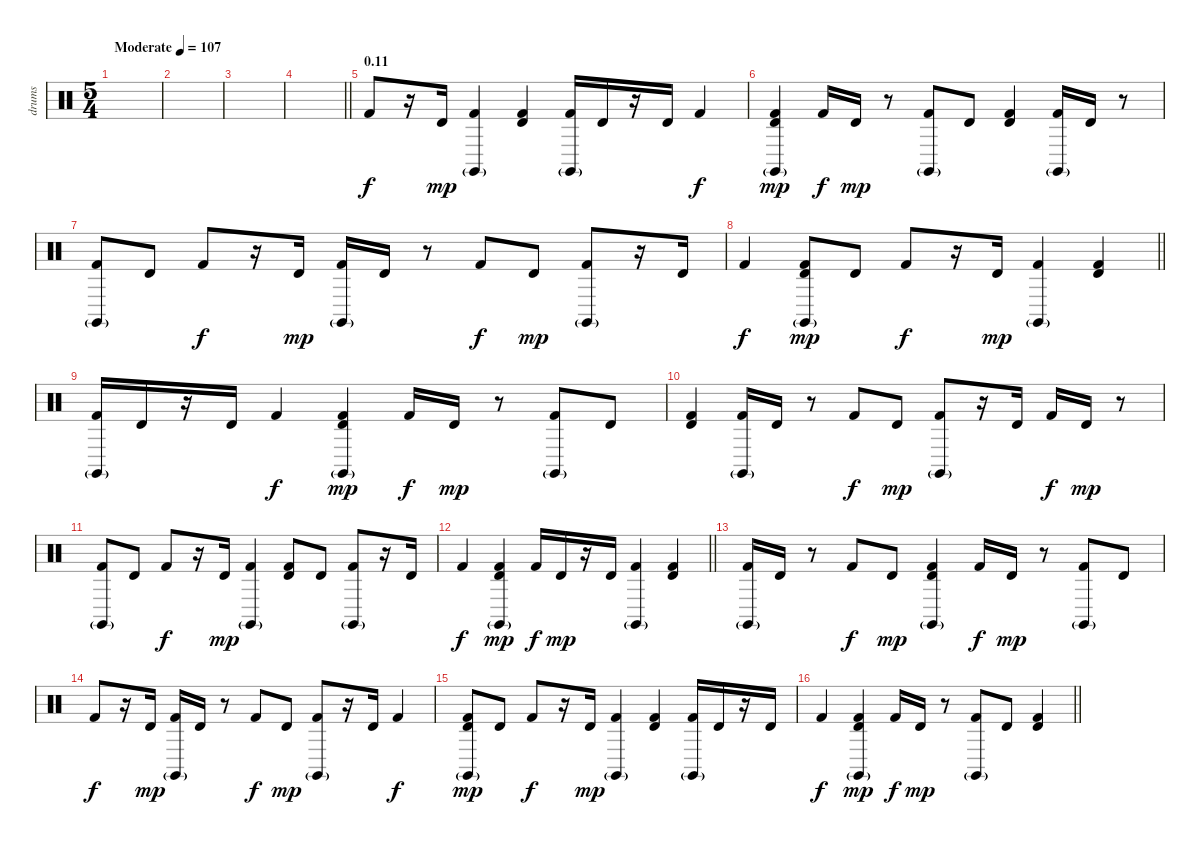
\track ("drums" "drums") {instrument percussion}
\staff {score}
\articulation defaults
\ts (5 4)
\tempo (107 "Moderate")
\clef neutral
\ks c
|
|
|
\barLineRight lightlight
|
\section ("" "0.11")
"Kick (hit) 2".8 r.16 "Timbale high (hit)".16{dy mp} ("Claves (hit)"{g} "Kick (hit) 2").4 ("Timbale high (hit)" "Kick (hit) 2").4 ("Claves (hit)"{g} "Kick (hit) 2").16 "Timbale high (hit)".16 r.16 "Timbale high (hit)".16 "Kick (hit) 2".4{dy f} |
("Timbale high (hit)" "Claves (hit)"{g} "Kick (hit) 2").4{dy mp} "Kick (hit) 2".16{dy f} "Timbale high (hit)".16{dy mp} r.8 ("Claves (hit)"{g} "Kick (hit) 2").8 "Timbale high (hit)".8 ("Timbale high (hit)" "Kick (hit) 2").4 ("Claves (hit)"{g} "Kick (hit) 2").16 "Timbale high (hit)".16 r.8 |
("Claves (hit)"{g} "Kick (hit) 2").8 "Timbale high (hit)".8 "Kick (hit) 2".8{dy f} r.16 "Timbale high (hit)".16{dy mp} ("Claves (hit)"{g} "Kick (hit) 2").16 "Timbale high (hit)".16 r.8 "Kick (hit) 2".8{dy f} "Timbale high (hit)".8{dy mp} ("Claves (hit)"{g} "Kick (hit) 2").8 r.16 "Timbale high (hit)".16 |
\barLineRight lightlight "Kick (hit) 2".4{dy f}
("Timbale high (hit)" "Claves (hit)"{g} "Kick (hit) 2").8{dy mp} "Timbale high (hit)".8 "Kick (hit) 2".8{dy f} r.16 "Timbale high (hit)".16{dy mp} ("Claves (hit)"{g} "Kick (hit) 2").4 ("Timbale high (hit)" "Kick (hit) 2").4 |
("Claves (hit)"{g} "Kick (hit) 2").16 "Timbale high (hit)".16 r.16 "Timbale high (hit)".16 "Kick (hit) 2".4{dy f} ("Timbale high (hit)" "Claves (hit)"{g} "Kick (hit) 2").4{dy mp} "Kick (hit) 2".16{dy f} "Timbale high (hit)".16{dy mp} r.8 ("Claves (hit)"{g} "Kick (hit) 2").8 "Timbale high (hit)".8 |
("Timbale high (hit)" "Kick (hit) 2").4 ("Claves (hit)"{g} "Kick (hit) 2").16 "Timbale high (hit)".16 r.8 "Kick (hit) 2".8{dy f} "Timbale high (hit)".8{dy mp} ("Claves (hit)"{g} "Kick (hit) 2").8 r.16 "Timbale high (hit)".16 "Kick (hit) 2".16{dy f} "Timbale high (hit)".16{dy mp} r.8 |
("Claves (hit)"{g} "Kick (hit) 2").8 "Timbale high (hit)".8 "Kick (hit) 2".8{dy f} r.16 "Timbale high (hit)".16{dy mp} ("Claves (hit)"{g} "Kick (hit) 2").4 ("Timbale high (hit)" "Kick (hit) 2").8 "Timbale high (hit)".8 ("Claves (hit)"{g} "Kick (hit) 2").8 r.16 "Timbale high (hit)".16 |
\barLineRight lightlight "Kick (hit) 2".4{dy f}
("Timbale high (hit)" "Claves (hit)"{g} "Kick (hit) 2").4{dy mp} "Kick (hit) 2".16{dy f} "Timbale high (hit)".16{dy mp} r.16 "Timbale high (hit)".16 ("Claves (hit)"{g} "Kick (hit) 2").4 ("Timbale high (hit)" "Kick (hit) 2").4 |
("Claves (hit)"{g} "Kick (hit) 2").16 "Timbale high (hit)".16 r.8 "Kick (hit) 2".8{dy f} "Timbale high (hit)".8{dy mp} ("Timbale high (hit)" "Claves (hit)"{g} "Kick (hit) 2").4 "Kick (hit) 2".16{dy f} "Timbale high (hit)".16{dy mp} r.8 ("Claves (hit)"{g} "Kick (hit) 2").8 "Timbale high (hit)".8 |
"Kick (hit) 2".8{dy f} r.16 "Timbale high (hit)".16{dy mp} ("Claves (hit)"{g} "Kick (hit) 2").16 "Timbale high (hit)".16 r.8 "Kick (hit) 2".8{dy f} "Timbale high (hit)".8{dy mp} ("Claves (hit)"{g} "Kick (hit) 2").8 r.16 "Timbale high (hit)".16 "Kick (hit) 2".4{dy f} |
("Timbale high (hit)" "Claves (hit)"{g} "Kick (hit) 2").8{dy mp} "Timbale high (hit)".8 "Kick (hit) 2".8{dy f} r.16 "Timbale high (hit)".16{dy mp} ("Claves (hit)"{g} "Kick (hit) 2").4 ("Timbale high (hit)" "Kick (hit) 2").4 ("Claves (hit)"{g} "Kick (hit) 2").16 "Timbale high (hit)".16 r.16 "Timbale high (hit)".16 |
\barLineRight lightlight "Kick (hit) 2".4{dy f}
("Timbale high (hit)" "Claves (hit)"{g} "Kick (hit) 2").4{dy mp} "Kick (hit) 2".16{dy f} "Timbale high (hit)".16{dy mp} r.8 ("Claves (hit)"{g} "Kick (hit) 2").8 "Timbale high (hit)".8 ("Timbale high (hit)" "Kick (hit) 2").4
